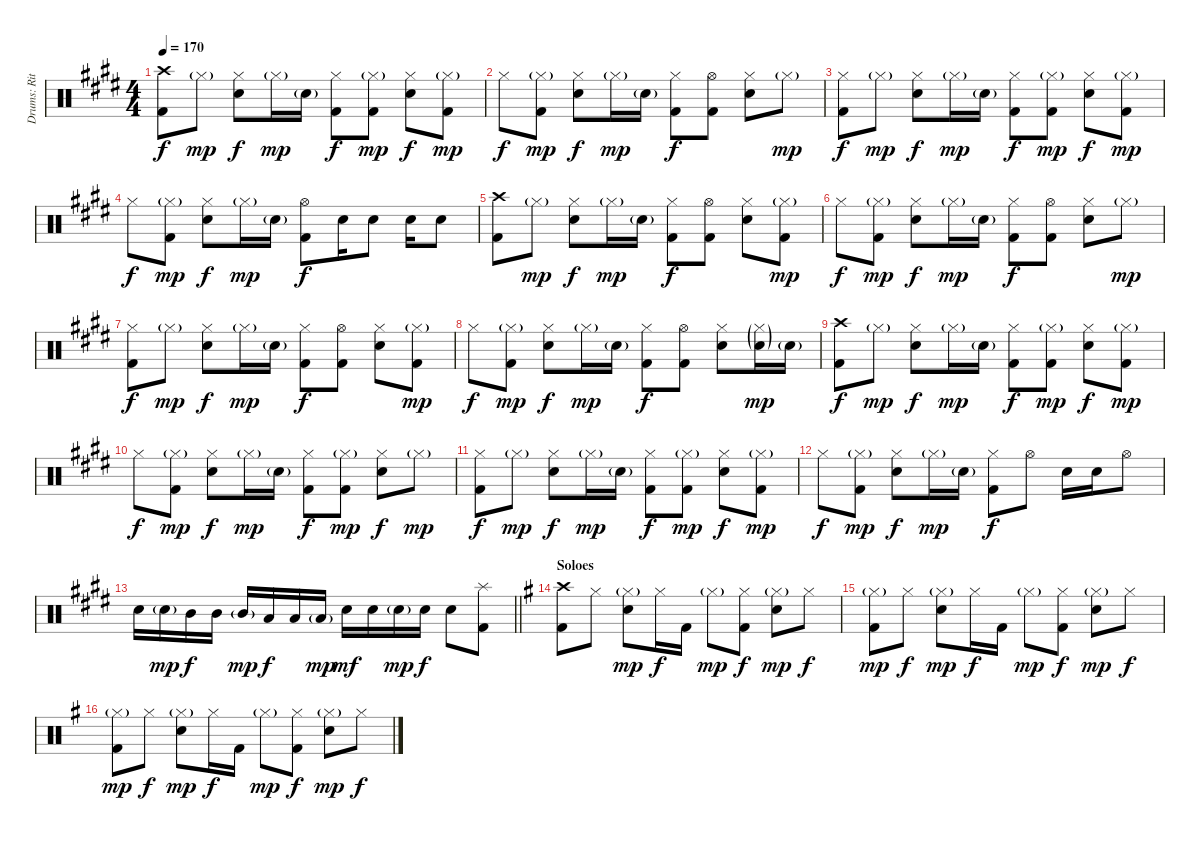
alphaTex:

\track ("Drums: Ritsu Tainaka" "Drums: Rit") {instrument percussion}
\staff {score}
\articulation defaults
\ts (4 4)
\tempo 170
\clef neutral
\ks e
("Crash high (hit)" "Kick (hit) 2").8{dy f} "Hi-Hat (closed)"{g}.8{dy mp} ("Hi-Hat (closed)" "Electric Snare (hit)").8{dy f} "Hi-Hat (closed)"{g}.16{dy mp} "Electric Snare (hit)"{g}.16 ("Hi-Hat (closed)" "Kick (hit) 2").8{dy f} ("Hi-Hat (closed)"{g} "Kick (hit) 2").8{dy mp} ("Hi-Hat (closed)" "Electric Snare (hit)").8{dy f} ("Hi-Hat (closed)"{g} "Kick (hit) 2").8{dy mp} |
"Hi-Hat (closed)".8{dy f} ("Hi-Hat (closed)"{g} "Kick (hit) 2").8{dy mp} ("Hi-Hat (closed)" "Electric Snare (hit)").8{dy f} "Hi-Hat (closed)"{g}.16{dy mp} "Electric Snare (hit)"{g}.16 ("Hi-Hat (closed)" "Kick (hit) 2").8{dy f} ("Hi-Hat (open)" "Kick (hit) 2").8 ("Hi-Hat (closed)" "Electric Snare (hit)").8 "Hi-Hat (closed)"{g}.8{dy mp} |
("Hi-Hat (closed)" "Kick (hit) 2").8{dy f} "Hi-Hat (closed)"{g}.8{dy mp} ("Hi-Hat (closed)" "Electric Snare (hit)").8{dy f} "Hi-Hat (closed)"{g}.16{dy mp} "Electric Snare (hit)"{g}.16 ("Hi-Hat (closed)" "Kick (hit) 2").8{dy f} ("Hi-Hat (closed)"{g} "Kick (hit) 2").8{dy mp} ("Hi-Hat (closed)" "Electric Snare (hit)").8{dy f} ("Hi-Hat (closed)"{g} "Kick (hit) 2").8{dy mp} |
"Hi-Hat (closed)".8{dy f} ("Hi-Hat (closed)"{g} "Kick (hit) 2").8{dy mp} ("Hi-Hat (closed)" "Electric Snare (hit)").8{dy f} "Hi-Hat (closed)"{g}.16{dy mp} "Electric Snare (hit)"{g}.16 ("Hi-Hat (open)" "Kick (hit) 2").8{dy f} "Electric Snare (hit)".16 "Electric Snare (hit)".8 "Electric Snare (hit)".16 "Electric Snare (hit)".8 |
("Crash high (hit)" "Kick (hit) 2").8 "Hi-Hat (closed)"{g}.8{dy mp} ("Hi-Hat (closed)" "Electric Snare (hit)").8{dy f} "Hi-Hat (closed)"{g}.16{dy mp} "Electric Snare (hit)"{g}.16 ("Hi-Hat (closed)" "Kick (hit) 2").8{dy f} ("Hi-Hat (open)" "Kick (hit) 2").8 ("Hi-Hat (closed)" "Electric Snare (hit)").8 ("Hi-Hat (closed)"{g} "Kick (hit) 2").8{dy mp} |
"Hi-Hat (closed)".8{dy f} ("Hi-Hat (closed)"{g} "Kick (hit) 2").8{dy mp} ("Hi-Hat (closed)" "Electric Snare (hit)").8{dy f} "Hi-Hat (closed)"{g}.16{dy mp} "Electric Snare (hit)"{g}.16 ("Hi-Hat (closed)" "Kick (hit) 2").8{dy f} ("Hi-Hat (open)" "Kick (hit) 2").8 ("Hi-Hat (closed)" "Electric Snare (hit)").8 "Hi-Hat (closed)"{g}.8{dy mp} |
("Hi-Hat (closed)" "Kick (hit) 2").8{dy f} "Hi-Hat (closed)"{g}.8{dy mp} ("Hi-Hat (closed)" "Electric Snare (hit)").8{dy f} "Hi-Hat (closed)"{g}.16{dy mp} "Electric Snare (hit)"{g}.16 ("Hi-Hat (closed)" "Kick (hit) 2").8{dy f} ("Hi-Hat (open)" "Kick (hit) 2").8 ("Hi-Hat (closed)" "Electric Snare (hit)").8 ("Hi-Hat (closed)"{g} "Kick (hit) 2").8{dy mp} |
"Hi-Hat (closed)".8{dy f} ("Hi-Hat (closed)"{g} "Kick (hit) 2").8{dy mp} ("Hi-Hat (closed)" "Electric Snare (hit)").8{dy f} "Hi-Hat (closed)"{g}.16{dy mp} "Electric Snare (hit)"{g}.16 ("Hi-Hat (closed)" "Kick (hit) 2").8{dy f} ("Hi-Hat (open)" "Kick (hit) 2").8 ("Hi-Hat (closed)" "Electric Snare (hit)").8 ("Hi-Hat (closed)"{g} "Electric Snare (hit)"{g}).16{dy mp} "Electric Snare (hit)"{g}.16 |
("Crash high (hit)" "Kick (hit) 2").8{dy f} "Hi-Hat (closed)"{g}.8{dy mp} ("Hi-Hat (closed)" "Electric Snare (hit)").8{dy f} "Hi-Hat (closed)"{g}.16{dy mp} "Electric Snare (hit)"{g}.16 ("Hi-Hat (closed)" "Kick (hit) 2").8{dy f} ("Hi-Hat (closed)"{g} "Kick (hit) 2").8{dy mp} ("Hi-Hat (closed)" "Electric Snare (hit)").8{dy f} ("Hi-Hat (closed)"{g} "Kick (hit) 2").8{dy mp} |
"Hi-Hat (closed)".8{dy f} ("Hi-Hat (closed)"{g} "Kick (hit) 2").8{dy mp} ("Hi-Hat (closed)" "Electric Snare (hit)").8{dy f} "Hi-Hat (closed)"{g}.16{dy mp} "Electric Snare (hit)"{g}.16 ("Hi-Hat (closed)" "Kick (hit) 2").8{dy f} ("Hi-Hat (closed)"{g} "Kick (hit) 2").8{dy mp} ("Hi-Hat (closed)" "Electric Snare (hit)").8{dy f} "Hi-Hat (closed)"{g}.8{dy mp} |
("Hi-Hat (closed)" "Kick (hit) 2").8{dy f} "Hi-Hat (closed)"{g}.8{dy mp} ("Hi-Hat (closed)" "Electric Snare (hit)").8{dy f} "Hi-Hat (closed)"{g}.16{dy mp} "Electric Snare (hit)"{g}.16 ("Hi-Hat (closed)" "Kick (hit) 2").8{dy f} ("Hi-Hat (closed)"{g} "Kick (hit) 2").8{dy mp} ("Hi-Hat (closed)" "Electric Snare (hit)").8{dy f} ("Hi-Hat (closed)"{g} "Kick (hit) 2").8{dy mp} |
"Hi-Hat (closed)".8{dy f} ("Hi-Hat (closed)"{g} "Kick (hit) 2").8{dy mp} ("Hi-Hat (closed)" "Electric Snare (hit)").8{dy f} "Hi-Hat (closed)"{g}.16{dy mp} "Electric Snare (hit)"{g}.16 ("Hi-Hat (closed)" "Kick (hit) 2").8{dy f} "Hi-Hat (open)".8 "Electric Snare (hit)".16 "Electric Snare (hit)".16 "Hi-Hat (open)".8 |
\barLineRight lightlight "Electric Snare (hit)".16 "Electric Snare (hit)"{g}.16{dy mp} "Mid Tom (hit)".16{dy f} "Mid Tom (hit)".16 "Mid Tom (hit)"{g}.16{dy mp} "Low Tom (hit)".16{dy f} "Low Tom (hit)".16 "Low Tom (hit)"{g}.16{dy mp} "Electric Snare (hit)".16{dy mf} "Electric Snare (hit)".16 "Electric Snare (hit)"{g}.16{dy mp} "Electric Snare (hit)".16{dy f} "Electric Snare (hit)".8
("Splash (hit)" "Kick (hit) 2").8 |
\section ("" "Soloes")
\ks eminor
("Crash high (hit)" "Kick (hit) 2").8 "Hi-Hat (closed)".8 ("Hi-Hat (closed)"{g} "Electric Snare (hit)").8{dy mp} "Hi-Hat (closed)".16{dy f} "Kick (hit) 2".16 "Hi-Hat (closed)"{g}.8{dy mp} ("Hi-Hat (closed)" "Kick (hit) 2").8{dy f} ("Hi-Hat (closed)"{g} "Electric Snare (hit)").8{dy mp} "Hi-Hat (closed)".8{dy f} |
("Hi-Hat (closed)"{g} "Kick (hit) 2").8{dy mp} "Hi-Hat (closed)".8{dy f} ("Hi-Hat (closed)"{g} "Electric Snare (hit)").8{dy mp} "Hi-Hat (closed)".16{dy f} "Kick (hit) 2".16 "Hi-Hat (closed)"{g}.8{dy mp} ("Hi-Hat (closed)" "Kick (hit) 2").8{dy f} ("Hi-Hat (closed)"{g} "Electric Snare (hit)").8{dy mp} "Hi-Hat (closed)".8{dy f} |
("Hi-Hat (closed)"{g} "Kick (hit) 2").8{dy mp} "Hi-Hat (closed)".8{dy f} ("Hi-Hat (closed)"{g} "Electric Snare (hit)").8{dy mp} "Hi-Hat (closed)".16{dy f} "Kick (hit) 2".16 "Hi-Hat (closed)"{g}.8{dy mp} ("Hi-Hat (closed)" "Kick (hit) 2").8{dy f} ("Hi-Hat (closed)"{g} "Electric Snare (hit)").8{dy mp} "Hi-Hat (closed)".8{dy f}
